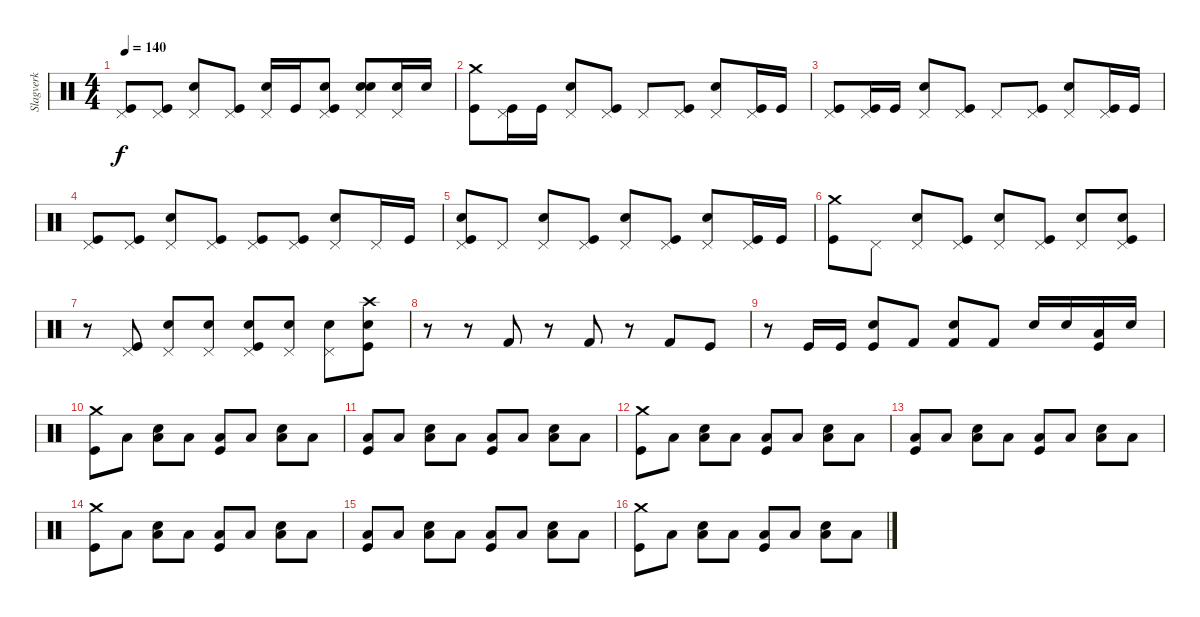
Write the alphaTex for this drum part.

\track ("Slagverk" "Slagverk") {instrument percussion}
\staff {score}
\articulation defaults
\ts (4 4)
\tempo 140
\clef neutral
\ks c
("Pedal Hi-Hat (hit)" "Kick (hit)").8{dy f} ("Pedal Hi-Hat (hit)" "Kick (hit)").8 ("Pedal Hi-Hat (hit)" "Snare (hit) 2").8 ("Pedal Hi-Hat (hit)" "Kick (hit)").8 ("Pedal Hi-Hat (hit)" "Electric Snare (hit)").16 "Kick (hit)".16 ("Pedal Hi-Hat (hit)" "Electric Snare (hit)" "Kick (hit)").8 ("Pedal Hi-Hat (hit)" "Snare (hit) 2" "Electric Snare (hit)").8 ("Pedal Hi-Hat (hit)" "Electric Snare (hit)").16 "Electric Snare (hit)".16 |
("Crash medium (hit)" "Kick (hit)").8 ("Pedal Hi-Hat (hit)" "Kick (hit)").16 "Kick (hit)".16 ("Pedal Hi-Hat (hit)" "Snare (hit) 2").8 ("Pedal Hi-Hat (hit)" "Kick (hit)").8 "Pedal Hi-Hat (hit)".8 ("Pedal Hi-Hat (hit)" "Kick (hit)").8 ("Pedal Hi-Hat (hit)" "Snare (hit) 2").8 ("Pedal Hi-Hat (hit)" "Kick (hit)").16 "Kick (hit)".16 |
("Pedal Hi-Hat (hit)" "Kick (hit)").8 ("Pedal Hi-Hat (hit)" "Kick (hit)").16 "Kick (hit)".16 ("Pedal Hi-Hat (hit)" "Snare (hit) 2").8 ("Pedal Hi-Hat (hit)" "Kick (hit)").8 "Pedal Hi-Hat (hit)".8 ("Pedal Hi-Hat (hit)" "Kick (hit)").8 ("Pedal Hi-Hat (hit)" "Snare (hit) 2").8 ("Pedal Hi-Hat (hit)" "Kick (hit)").16 "Kick (hit)".16 |
("Pedal Hi-Hat (hit)" "Kick (hit)").8 ("Pedal Hi-Hat (hit)" "Kick (hit)").8 ("Pedal Hi-Hat (hit)" "Snare (hit) 2").8 ("Pedal Hi-Hat (hit)" "Kick (hit)").8 ("Pedal Hi-Hat (hit)" "Kick (hit)").8 ("Pedal Hi-Hat (hit)" "Kick (hit)").8 ("Pedal Hi-Hat (hit)" "Snare (hit) 2").8 "Pedal Hi-Hat (hit)".16 "Kick (hit)".16 |
("Pedal Hi-Hat (hit)" "Snare (hit) 2" "Kick (hit)").8 "Pedal Hi-Hat (hit)".8 ("Pedal Hi-Hat (hit)" "Snare (hit) 2").8 ("Pedal Hi-Hat (hit)" "Kick (hit)").8 ("Pedal Hi-Hat (hit)" "Snare (hit) 2").8 ("Pedal Hi-Hat (hit)" "Kick (hit)").8 ("Pedal Hi-Hat (hit)" "Snare (hit) 2").8 ("Pedal Hi-Hat (hit)" "Kick (hit)").16 "Kick (hit)".16 |
("Crash medium (hit)" "Kick (hit)").8 "Pedal Hi-Hat (hit)".8 ("Pedal Hi-Hat (hit)" "Snare (hit) 2").8 ("Pedal Hi-Hat (hit)" "Kick (hit)").8 ("Pedal Hi-Hat (hit)" "Electric Snare (hit)").8 ("Pedal Hi-Hat (hit)" "Kick (hit)").8 ("Pedal Hi-Hat (hit)" "Electric Snare (hit)").8 ("Pedal Hi-Hat (hit)" "Snare (hit) 2" "Kick (hit)").8 |
r.8 ("Pedal Hi-Hat (hit)" "Kick (hit)").8 ("Pedal Hi-Hat (hit)" "Snare (hit) 2").8 ("Pedal Hi-Hat (hit)" "Snare (hit) 2").8 ("Pedal Hi-Hat (hit)" "Snare (hit) 2" "Kick (hit)").8 ("Pedal Hi-Hat (hit)" "Snare (hit) 2").8 ("Pedal Hi-Hat (hit)" "Snare (hit) 2").8 ("Crash high (hit)" "Snare (hit) 2" "Kick (hit)").8 |
r.8 r.8 "Kick (hit) 2".8 r.8 "Kick (hit) 2".8 r.8 "Kick (hit) 2".8 "Kick (hit)".8 |
r.8 "Kick (hit)".16 "Kick (hit)".16 ("Electric Snare (hit)" "Kick (hit)").8 "Kick (hit) 2".8 ("Electric Snare (hit)" "Kick (hit) 2").8 "Kick (hit) 2".8 "Snare (hit) 2".16 "Electric Snare (hit)".16 ("Low Floor Tom (hit)" "Kick (hit)").16 "Electric Snare (hit)".16 |
("Crash medium (hit)" "Kick (hit)").8 "Low Floor Tom (hit)".8 ("Low Floor Tom (hit)" "Snare (hit) 2").8 "Low Floor Tom (hit)".8 ("Low Floor Tom (hit)" "Kick (hit)").8 "Low Floor Tom (hit)".8 ("Low Floor Tom (hit)" "Snare (hit) 2").8 "Low Floor Tom (hit)".8 |
("Low Floor Tom (hit)" "Kick (hit)").8 "Low Floor Tom (hit)".8 ("Low Floor Tom (hit)" "Snare (hit) 2").8 "Low Floor Tom (hit)".8 ("Low Floor Tom (hit)" "Kick (hit)").8 "Low Floor Tom (hit)".8 ("Low Floor Tom (hit)" "Snare (hit) 2").8 "Low Floor Tom (hit)".8 |
("Crash medium (hit)" "Kick (hit)").8 "Low Floor Tom (hit)".8 ("Low Floor Tom (hit)" "Snare (hit) 2").8 "Low Floor Tom (hit)".8 ("Low Floor Tom (hit)" "Kick (hit)").8 "Low Floor Tom (hit)".8 ("Low Floor Tom (hit)" "Snare (hit) 2").8 "Low Floor Tom (hit)".8 |
("Low Floor Tom (hit)" "Kick (hit)").8 "Low Floor Tom (hit)".8 ("Low Floor Tom (hit)" "Snare (hit) 2").8 "Low Floor Tom (hit)".8 ("Low Floor Tom (hit)" "Kick (hit)").8 "Low Floor Tom (hit)".8 ("Low Floor Tom (hit)" "Snare (hit) 2").8 "Low Floor Tom (hit)".8 |
("Crash medium (hit)" "Kick (hit)").8 "Low Floor Tom (hit)".8 ("Low Floor Tom (hit)" "Snare (hit) 2").8 "Low Floor Tom (hit)".8 ("Low Floor Tom (hit)" "Kick (hit)").8 "Low Floor Tom (hit)".8 ("Low Floor Tom (hit)" "Snare (hit) 2").8 "Low Floor Tom (hit)".8 |
("Low Floor Tom (hit)" "Kick (hit)").8 "Low Floor Tom (hit)".8 ("Low Floor Tom (hit)" "Snare (hit) 2").8 "Low Floor Tom (hit)".8 ("Low Floor Tom (hit)" "Kick (hit)").8 "Low Floor Tom (hit)".8 ("Low Floor Tom (hit)" "Snare (hit) 2").8 "Low Floor Tom (hit)".8 |
("Crash medium (hit)" "Kick (hit)").8 "Low Floor Tom (hit)".8 ("Low Floor Tom (hit)" "Snare (hit) 2").8 "Low Floor Tom (hit)".8 ("Low Floor Tom (hit)" "Kick (hit)").8 "Low Floor Tom (hit)".8 ("Low Floor Tom (hit)" "Snare (hit) 2").8 "Low Floor Tom (hit)".8
